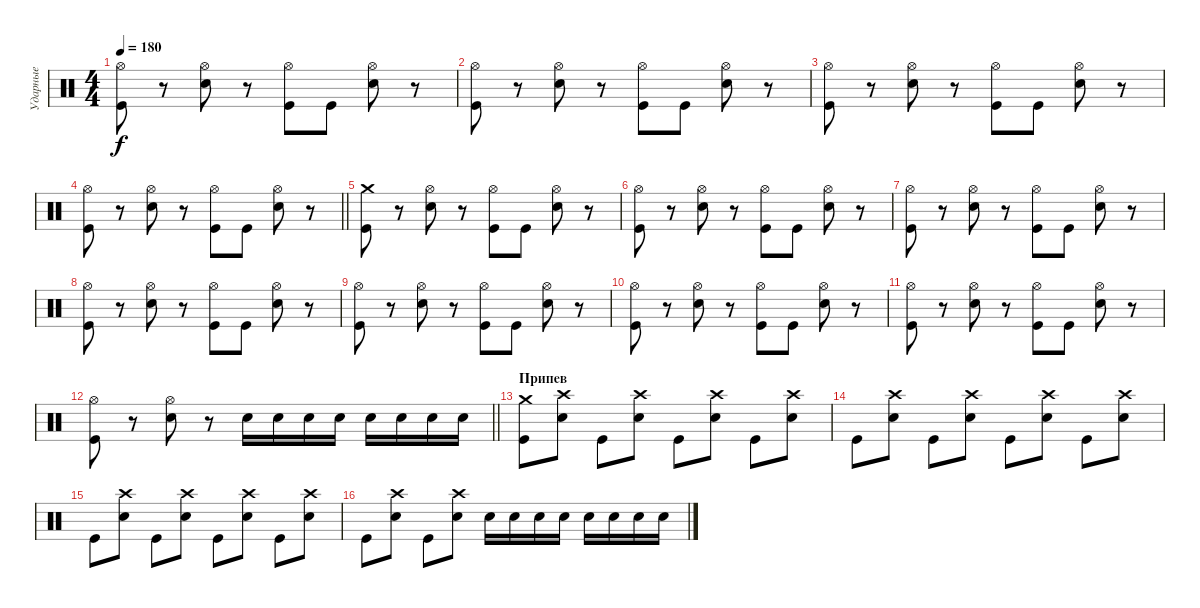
\track ("Ударные" "Ударные") {instrument percussion}
\staff {score}
\articulation defaults
\ts (4 4)
\tempo 180
\clef neutral
\ks c
("Hi-Hat (open)" "Kick (hit)").8{dy f} r.8 ("Hi-Hat (open)" "Electric Snare (hit)").8 r.8 ("Hi-Hat (open)" "Kick (hit)").8 "Kick (hit)".8 ("Hi-Hat (open)" "Electric Snare (hit)").8 r.8 |
("Hi-Hat (open)" "Kick (hit)").8 r.8 ("Hi-Hat (open)" "Electric Snare (hit)").8 r.8 ("Hi-Hat (open)" "Kick (hit)").8 "Kick (hit)".8 ("Hi-Hat (open)" "Electric Snare (hit)").8 r.8 |
("Hi-Hat (open)" "Kick (hit)").8 r.8 ("Hi-Hat (open)" "Electric Snare (hit)").8 r.8 ("Hi-Hat (open)" "Kick (hit)").8 "Kick (hit)".8 ("Hi-Hat (open)" "Electric Snare (hit)").8 r.8 |
\barLineRight lightlight
("Hi-Hat (open)" "Kick (hit)").8 r.8 ("Hi-Hat (open)" "Electric Snare (hit)").8 r.8 ("Hi-Hat (open)" "Kick (hit)").8 "Kick (hit)".8 ("Hi-Hat (open)" "Electric Snare (hit)").8 r.8 |
\section ("" " ")
("Crash medium (hit)" "Kick (hit)").8 r.8 ("Hi-Hat (open)" "Electric Snare (hit)").8 r.8 ("Hi-Hat (open)" "Kick (hit)").8 "Kick (hit)".8 ("Hi-Hat (open)" "Electric Snare (hit)").8 r.8 |
("Hi-Hat (open)" "Kick (hit)").8 r.8 ("Hi-Hat (open)" "Electric Snare (hit)").8 r.8 ("Hi-Hat (open)" "Kick (hit)").8 "Kick (hit)".8 ("Hi-Hat (open)" "Electric Snare (hit)").8 r.8 |
("Hi-Hat (open)" "Kick (hit)").8 r.8 ("Hi-Hat (open)" "Electric Snare (hit)").8 r.8 ("Hi-Hat (open)" "Kick (hit)").8 "Kick (hit)".8 ("Hi-Hat (open)" "Electric Snare (hit)").8 r.8 |
("Hi-Hat (open)" "Kick (hit)").8 r.8 ("Hi-Hat (open)" "Electric Snare (hit)").8 r.8 ("Hi-Hat (open)" "Kick (hit)").8 "Kick (hit)".8 ("Hi-Hat (open)" "Electric Snare (hit)").8 r.8 |
("Hi-Hat (open)" "Kick (hit)").8 r.8 ("Hi-Hat (open)" "Electric Snare (hit)").8 r.8 ("Hi-Hat (open)" "Kick (hit)").8 "Kick (hit)".8 ("Hi-Hat (open)" "Electric Snare (hit)").8 r.8 |
("Hi-Hat (open)" "Kick (hit)").8 r.8 ("Hi-Hat (open)" "Electric Snare (hit)").8 r.8 ("Hi-Hat (open)" "Kick (hit)").8 "Kick (hit)".8 ("Hi-Hat (open)" "Electric Snare (hit)").8 r.8 |
("Hi-Hat (open)" "Kick (hit)").8 r.8 ("Hi-Hat (open)" "Electric Snare (hit)").8 r.8 ("Hi-Hat (open)" "Kick (hit)").8 "Kick (hit)".8 ("Hi-Hat (open)" "Electric Snare (hit)").8 r.8 |
\barLineRight lightlight
("Hi-Hat (open)" "Kick (hit)").8 r.8 ("Hi-Hat (open)" "Electric Snare (hit)").8 r.8 "Electric Snare (hit)".16 "Electric Snare (hit)".16 "Electric Snare (hit)".16 "Electric Snare (hit)".16 "Electric Snare (hit)".16 "Electric Snare (hit)".16 "Electric Snare (hit)".16 "Electric Snare (hit)".16 |
\section ("" "Припев")
("Crash medium (hit)" "Kick (hit)").8 ("Crash high (hit)" "Electric Snare (hit)").8 "Kick (hit)".8 ("Crash high (hit)" "Electric Snare (hit)").8 "Kick (hit)".8 ("Crash high (hit)" "Electric Snare (hit)").8 "Kick (hit)".8 ("Crash high (hit)" "Electric Snare (hit)").8 |
"Kick (hit)".8 ("Crash high (hit)" "Electric Snare (hit)").8 "Kick (hit)".8 ("Crash high (hit)" "Electric Snare (hit)").8 "Kick (hit)".8 ("Crash high (hit)" "Electric Snare (hit)").8 "Kick (hit)".8 ("Crash high (hit)" "Electric Snare (hit)").8 |
"Kick (hit)".8 ("Crash high (hit)" "Electric Snare (hit)").8 "Kick (hit)".8 ("Crash high (hit)" "Electric Snare (hit)").8 "Kick (hit)".8 ("Crash high (hit)" "Electric Snare (hit)").8 "Kick (hit)".8 ("Crash high (hit)" "Electric Snare (hit)").8 |
"Kick (hit)".8 ("Crash high (hit)" "Electric Snare (hit)").8 "Kick (hit)".8 ("Crash high (hit)" "Electric Snare (hit)").8 "Electric Snare (hit)".16 "Electric Snare (hit)".16 "Electric Snare (hit)".16 "Electric Snare (hit)".16 "Electric Snare (hit)".16 "Electric Snare (hit)".16 "Electric Snare (hit)".16 "Electric Snare (hit)".16
